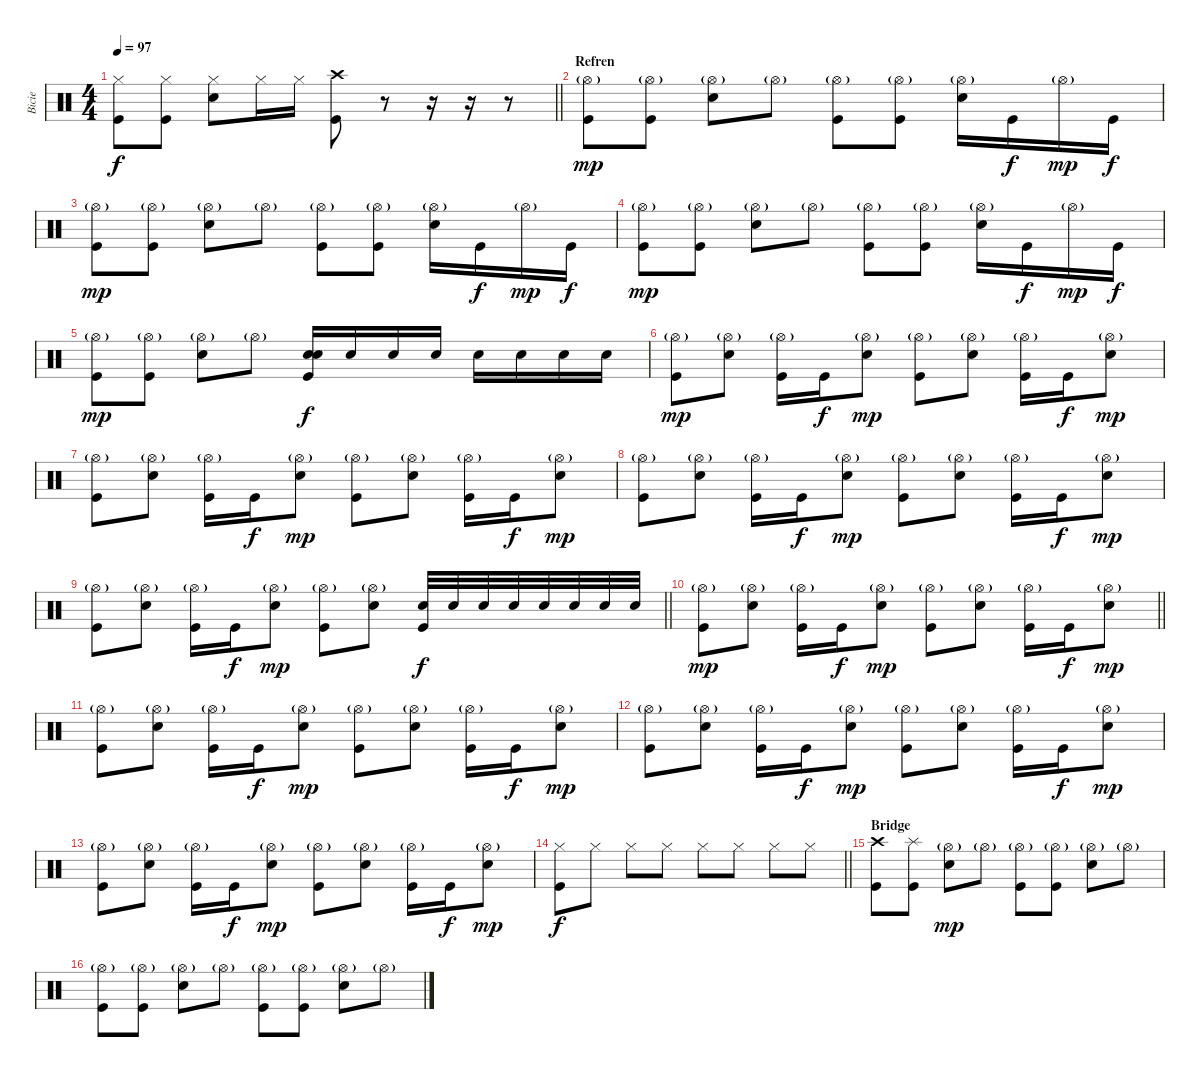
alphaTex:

\track ("Bicie" "Bicie") {instrument percussion}
\staff {score}
\articulation defaults
\ts (4 4)
\tempo 97
\clef neutral
\barLineRight lightlight
\ks c
("Hi-Hat (closed)" "Kick (hit)").8{dy f} ("Hi-Hat (closed)" "Kick (hit)").8 ("Hi-Hat (closed)" "Electric Snare (hit)").8 "Hi-Hat (closed)".16 "Hi-Hat (closed)".16 ("Crash high (hit)" "Kick (hit)").8 r.8 r.16 r.16 r.8 |
\section ("" "Refren")
("Hi-Hat (open)"{g} "Kick (hit)").8{dy mp} ("Hi-Hat (open)"{g} "Kick (hit)").8 ("Hi-Hat (open)"{g} "Electric Snare (hit)").8 "Hi-Hat (open)"{g}.8 ("Hi-Hat (open)"{g} "Kick (hit)").8 ("Hi-Hat (open)"{g} "Kick (hit)").8 ("Hi-Hat (open)"{g} "Electric Snare (hit)").16 "Kick (hit)".16{dy f} "Hi-Hat (open)"{g}.16{dy mp} "Kick (hit)".16{dy f} |
("Hi-Hat (open)"{g} "Kick (hit)").8{dy mp} ("Hi-Hat (open)"{g} "Kick (hit)").8 ("Hi-Hat (open)"{g} "Electric Snare (hit)").8 "Hi-Hat (open)"{g}.8 ("Hi-Hat (open)"{g} "Kick (hit)").8 ("Hi-Hat (open)"{g} "Kick (hit)").8 ("Hi-Hat (open)"{g} "Electric Snare (hit)").16 "Kick (hit)".16{dy f} "Hi-Hat (open)"{g}.16{dy mp} "Kick (hit)".16{dy f} |
("Hi-Hat (open)"{g} "Kick (hit)").8{dy mp} ("Hi-Hat (open)"{g} "Kick (hit)").8 ("Hi-Hat (open)"{g} "Electric Snare (hit)").8 "Hi-Hat (open)"{g}.8 ("Hi-Hat (open)"{g} "Kick (hit)").8 ("Hi-Hat (open)"{g} "Kick (hit)").8 ("Hi-Hat (open)"{g} "Electric Snare (hit)").16 "Kick (hit)".16{dy f} "Hi-Hat (open)"{g}.16{dy mp} "Kick (hit)".16{dy f} |
("Hi-Hat (open)"{g} "Kick (hit)").8{dy mp} ("Hi-Hat (open)"{g} "Kick (hit)").8 ("Hi-Hat (open)"{g} "Electric Snare (hit)").8 "Hi-Hat (open)"{g}.8 ("Electric Snare (hit)" "Electric Snare (hit)" "Kick (hit)").16{dy f} "Electric Snare (hit)".16 "Electric Snare (hit)".16 "Electric Snare (hit)".16 "Electric Snare (hit)".16 "Electric Snare (hit)".16 "Electric Snare (hit)".16 "Electric Snare (hit)".16 |
("Hi-Hat (open)"{g} "Kick (hit)").8{dy mp} ("Hi-Hat (open)"{g} "Electric Snare (hit)").8 ("Hi-Hat (open)"{g} "Kick (hit)").16 "Kick (hit)".16{dy f} ("Hi-Hat (open)"{g} "Electric Snare (hit)").8{dy mp} ("Hi-Hat (open)"{g} "Kick (hit)").8 ("Hi-Hat (open)"{g} "Electric Snare (hit)").8 ("Hi-Hat (open)"{g} "Kick (hit)").16 "Kick (hit)".16{dy f} ("Hi-Hat (open)"{g} "Electric Snare (hit)").8{dy mp} |
("Hi-Hat (open)"{g} "Kick (hit)").8 ("Hi-Hat (open)"{g} "Electric Snare (hit)").8 ("Hi-Hat (open)"{g} "Kick (hit)").16 "Kick (hit)".16{dy f} ("Hi-Hat (open)"{g} "Electric Snare (hit)").8{dy mp} ("Hi-Hat (open)"{g} "Kick (hit)").8 ("Hi-Hat (open)"{g} "Electric Snare (hit)").8 ("Hi-Hat (open)"{g} "Kick (hit)").16 "Kick (hit)".16{dy f} ("Hi-Hat (open)"{g} "Electric Snare (hit)").8{dy mp} |
("Hi-Hat (open)"{g} "Kick (hit)").8 ("Hi-Hat (open)"{g} "Electric Snare (hit)").8 ("Hi-Hat (open)"{g} "Kick (hit)").16 "Kick (hit)".16{dy f} ("Hi-Hat (open)"{g} "Electric Snare (hit)").8{dy mp} ("Hi-Hat (open)"{g} "Kick (hit)").8 ("Hi-Hat (open)"{g} "Electric Snare (hit)").8 ("Hi-Hat (open)"{g} "Kick (hit)").16 "Kick (hit)".16{dy f} ("Hi-Hat (open)"{g} "Electric Snare (hit)").8{dy mp} |
\barLineRight lightlight
("Hi-Hat (open)"{g} "Kick (hit)").8 ("Hi-Hat (open)"{g} "Electric Snare (hit)").8 ("Hi-Hat (open)"{g} "Kick (hit)").16 "Kick (hit)".16{dy f} ("Hi-Hat (open)"{g} "Electric Snare (hit)").8{dy mp} ("Hi-Hat (open)"{g} "Kick (hit)").8 ("Hi-Hat (open)"{g} "Electric Snare (hit)").8 ("Electric Snare (hit)" "Kick (hit)").32{dy f} "Electric Snare (hit)".32 "Electric Snare (hit)".32 "Electric Snare (hit)".32 "Electric Snare (hit)".32 "Electric Snare (hit)".32 "Electric Snare (hit)".32 "Electric Snare (hit)".32 |
\barLineRight lightlight
("Hi-Hat (open)"{g} "Kick (hit)").8{dy mp} ("Hi-Hat (open)"{g} "Electric Snare (hit)").8 ("Hi-Hat (open)"{g} "Kick (hit)").16 "Kick (hit)".16{dy f} ("Hi-Hat (open)"{g} "Electric Snare (hit)").8{dy mp} ("Hi-Hat (open)"{g} "Kick (hit)").8 ("Hi-Hat (open)"{g} "Electric Snare (hit)").8 ("Hi-Hat (open)"{g} "Kick (hit)").16 "Kick (hit)".16{dy f} ("Hi-Hat (open)"{g} "Electric Snare (hit)").8{dy mp} |
("Hi-Hat (open)"{g} "Kick (hit)").8 ("Hi-Hat (open)"{g} "Electric Snare (hit)").8 ("Hi-Hat (open)"{g} "Kick (hit)").16 "Kick (hit)".16{dy f} ("Hi-Hat (open)"{g} "Electric Snare (hit)").8{dy mp} ("Hi-Hat (open)"{g} "Kick (hit)").8 ("Hi-Hat (open)"{g} "Electric Snare (hit)").8 ("Hi-Hat (open)"{g} "Kick (hit)").16 "Kick (hit)".16{dy f} ("Hi-Hat (open)"{g} "Electric Snare (hit)").8{dy mp} |
("Hi-Hat (open)"{g} "Kick (hit)").8 ("Hi-Hat (open)"{g} "Electric Snare (hit)").8 ("Hi-Hat (open)"{g} "Kick (hit)").16 "Kick (hit)".16{dy f} ("Hi-Hat (open)"{g} "Electric Snare (hit)").8{dy mp} ("Hi-Hat (open)"{g} "Kick (hit)").8 ("Hi-Hat (open)"{g} "Electric Snare (hit)").8 ("Hi-Hat (open)"{g} "Kick (hit)").16 "Kick (hit)".16{dy f} ("Hi-Hat (open)"{g} "Electric Snare (hit)").8{dy mp} |
("Hi-Hat (open)"{g} "Kick (hit)").8 ("Hi-Hat (open)"{g} "Electric Snare (hit)").8 ("Hi-Hat (open)"{g} "Kick (hit)").16 "Kick (hit)".16{dy f} ("Hi-Hat (open)"{g} "Electric Snare (hit)").8{dy mp} ("Hi-Hat (open)"{g} "Kick (hit)").8 ("Hi-Hat (open)"{g} "Electric Snare (hit)").8 ("Hi-Hat (open)"{g} "Kick (hit)").16 "Kick (hit)".16{dy f} ("Hi-Hat (open)"{g} "Electric Snare (hit)").8{dy mp} |
\barLineRight lightlight
("Hi-Hat (closed)" "Kick (hit)").8{dy f} "Hi-Hat (closed)".8 "Hi-Hat (closed)".8 "Hi-Hat (closed)".8 "Hi-Hat (closed)".8 "Hi-Hat (closed)".8 "Hi-Hat (closed)".8 "Hi-Hat (closed)".8 |
\section ("" "Bridge")
("Crash high (hit)" "Kick (hit)").8 ("Splash (hit)" "Kick (hit)").8 ("Hi-Hat (open)"{g} "Electric Snare (hit)").8{dy mp} "Hi-Hat (open)"{g}.8 ("Hi-Hat (open)"{g} "Kick (hit)").8 ("Hi-Hat (open)"{g} "Kick (hit)").8 ("Hi-Hat (open)"{g} "Electric Snare (hit)").8 "Hi-Hat (open)"{g}.8 |
("Hi-Hat (open)"{g} "Kick (hit)").8 ("Hi-Hat (open)"{g} "Kick (hit)").8 ("Hi-Hat (open)"{g} "Electric Snare (hit)").8 "Hi-Hat (open)"{g}.8 ("Hi-Hat (open)"{g} "Kick (hit)").8 ("Hi-Hat (open)"{g} "Kick (hit)").8 ("Hi-Hat (open)"{g} "Electric Snare (hit)").8 "Hi-Hat (open)"{g}.8
